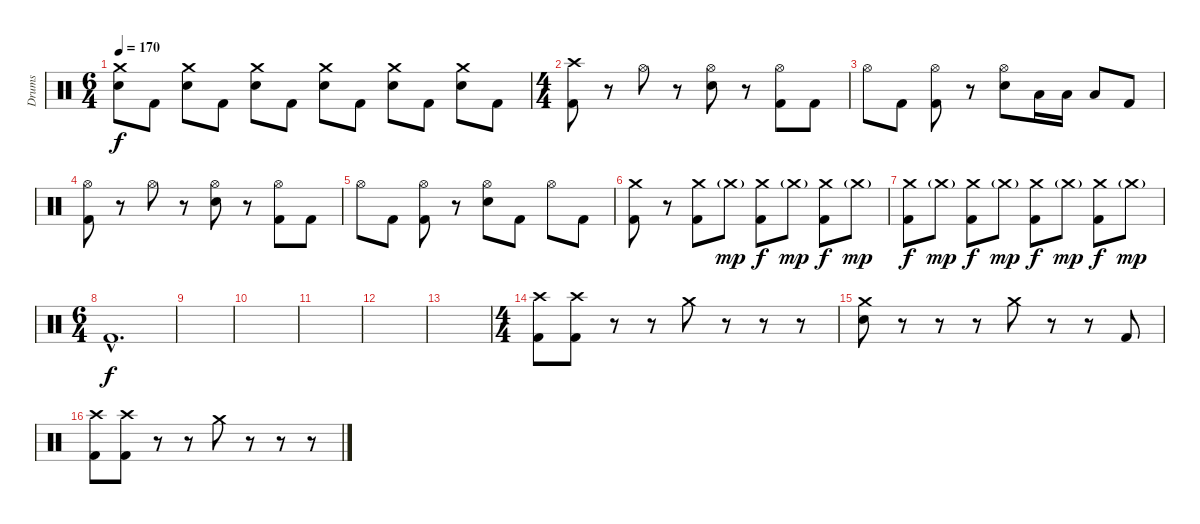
\track ("Drums" "Drums") {instrument percussion}
\staff {score}
\articulation defaults
\ts (6 4)
\tempo 170
\clef neutral
\ks c
("Crash medium (hit)" "Electric Snare (hit)").8{dy f} "Kick (hit) 2".8 ("Crash medium (hit)" "Electric Snare (hit)").8 "Kick (hit) 2".8 ("Crash medium (hit)" "Electric Snare (hit)").8 "Kick (hit) 2".8 ("Crash medium (hit)" "Electric Snare (hit)").8 "Kick (hit) 2".8 ("Crash medium (hit)" "Electric Snare (hit)").8 "Kick (hit) 2".8 ("Crash medium (hit)" "Electric Snare (hit)").8 "Kick (hit) 2".8 |
\ts (4 4)
("Crash high (hit)" "Kick (hit) 2").8 r.8 "Hi-Hat (open)".8 r.8 ("Hi-Hat (open)" "Electric Snare (hit)").8 r.8 ("Hi-Hat (open)" "Kick (hit) 2").8 "Kick (hit) 2".8 |
"Hi-Hat (open)".8 "Kick (hit) 2".8 ("Hi-Hat (open)" "Kick (hit) 2").8 r.8 ("Hi-Hat (open)" "Electric Snare (hit)").8 "Low Tom (hit)".16 "Low Tom (hit)".16 "Low Tom (hit)".8 "Kick (hit) 2".8 |
("Hi-Hat (open)" "Kick (hit) 2").8 r.8 "Hi-Hat (open)".8 r.8 ("Hi-Hat (open)" "Electric Snare (hit)").8 r.8 ("Hi-Hat (open)" "Kick (hit) 2").8 "Kick (hit) 2".8 |
"Hi-Hat (open)".8 "Kick (hit) 2".8 ("Hi-Hat (open)" "Kick (hit) 2").8 r.8 ("Hi-Hat (open)" "Electric Snare (hit)").8 "Kick (hit) 2".8 "Hi-Hat (open)".8 "Kick (hit) 2".8 |
("Crash medium (hit)" "Kick (hit) 2").8 r.8 ("Crash medium (hit)" "Kick (hit) 2").8 "Crash medium (hit)"{g}.8{dy mp} ("Crash medium (hit)" "Kick (hit) 2").8{dy f} "Crash medium (hit)"{g}.8{dy mp} ("Crash medium (hit)" "Kick (hit) 2").8{dy f} "Crash medium (hit)"{g}.8{dy mp} |
("Crash medium (hit)" "Kick (hit) 2").8{dy f} "Crash medium (hit)"{g}.8{dy mp} ("Crash medium (hit)" "Kick (hit) 2").8{dy f} "Crash medium (hit)"{g}.8{dy mp} ("Crash medium (hit)" "Kick (hit) 2").8{dy f} "Crash medium (hit)"{g}.8{dy mp} ("Crash medium (hit)" "Kick (hit) 2").8{dy f} "Crash medium (hit)"{g}.8{dy mp} |
\ts (6 4)
"Kick (hit) 2"{hac}.1{d dy f} |
|
|
|
|
|
\ts (4 4)
("Crash high (hit)" "Kick (hit) 2").8 ("Crash high (hit)" "Kick (hit) 2").8 r.8 r.8 "Crash medium (hit)".8 r.8 r.8 r.8 |
("Crash medium (hit)" "Electric Snare (hit)").8 r.8 r.8 r.8 "Crash medium (hit)".8 r.8 r.8 "Kick (hit) 2".8 |
("Crash high (hit)" "Kick (hit) 2").8 ("Crash high (hit)" "Kick (hit) 2").8 r.8 r.8 "Crash medium (hit)".8 r.8 r.8 r.8
